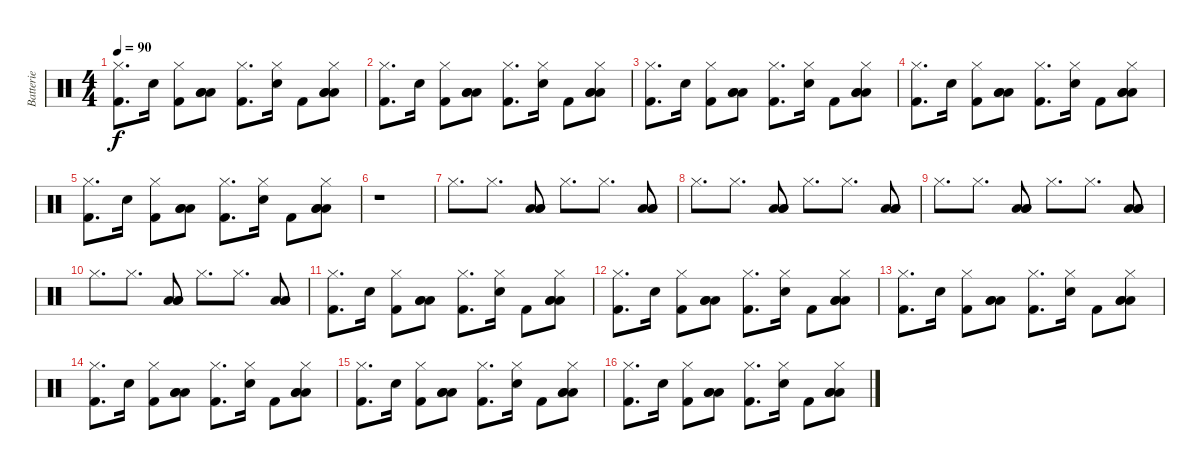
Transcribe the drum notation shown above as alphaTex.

\track ("Batterie" "Batterie") {instrument percussion}
\staff {score}
\articulation defaults
\ts (4 4)
\tempo 90
\clef neutral
\ks c
("Kick (hit) 2" "Hi-Hat (closed)").8{d dy f} "Electric Snare (hit)".16 ("Kick (hit) 2" "Hi-Hat (closed)").8 ("Low Tom (hit)" "Low Tom (hit)" "Low Tom (hit)").8 ("Kick (hit) 2" "Hi-Hat (closed)").8{d} ("Electric Snare (hit)" "Hi-Hat (closed)").16 "Kick (hit) 2".8 ("Low Tom (hit)" "Low Tom (hit)" "Low Tom (hit)" "Hi-Hat (closed)").8 |
("Kick (hit) 2" "Hi-Hat (closed)").8{d} "Electric Snare (hit)".16 ("Kick (hit) 2" "Hi-Hat (closed)").8 ("Low Tom (hit)" "Low Tom (hit)" "Low Tom (hit)").8 ("Kick (hit) 2" "Hi-Hat (closed)").8{d} ("Electric Snare (hit)" "Hi-Hat (closed)").16 "Kick (hit) 2".8 ("Low Tom (hit)" "Low Tom (hit)" "Low Tom (hit)" "Hi-Hat (closed)").8 |
("Kick (hit) 2" "Hi-Hat (closed)").8{d} "Electric Snare (hit)".16 ("Kick (hit) 2" "Hi-Hat (closed)").8 ("Low Tom (hit)" "Low Tom (hit)" "Low Tom (hit)").8 ("Kick (hit) 2" "Hi-Hat (closed)").8{d} ("Electric Snare (hit)" "Hi-Hat (closed)").16 "Kick (hit) 2".8 ("Low Tom (hit)" "Low Tom (hit)" "Low Tom (hit)" "Hi-Hat (closed)").8 |
("Kick (hit) 2" "Hi-Hat (closed)").8{d} "Electric Snare (hit)".16 ("Kick (hit) 2" "Hi-Hat (closed)").8 ("Low Tom (hit)" "Low Tom (hit)" "Low Tom (hit)").8 ("Kick (hit) 2" "Hi-Hat (closed)").8{d} ("Electric Snare (hit)" "Hi-Hat (closed)").16 "Kick (hit) 2".8 ("Low Tom (hit)" "Low Tom (hit)" "Low Tom (hit)" "Hi-Hat (closed)").8 |
("Kick (hit) 2" "Hi-Hat (closed)").8{d} "Electric Snare (hit)".16 ("Kick (hit) 2" "Hi-Hat (closed)").8 ("Low Tom (hit)" "Low Tom (hit)" "Low Tom (hit)").8 ("Kick (hit) 2" "Hi-Hat (closed)").8{d} ("Electric Snare (hit)" "Hi-Hat (closed)").16 "Kick (hit) 2".8 ("Low Tom (hit)" "Low Tom (hit)" "Low Tom (hit)" "Hi-Hat (closed)").8 |
r.1 |
"Hi-Hat (closed)".8{d} "Hi-Hat (closed)".8{d} ("Low Tom (hit)" "Low Tom (hit)" "Low Tom (hit)").8 "Hi-Hat (closed)".8{d} "Hi-Hat (closed)".8{d} ("Low Tom (hit)" "Low Tom (hit)" "Low Tom (hit)").8 |
"Hi-Hat (closed)".8{d} "Hi-Hat (closed)".8{d} ("Low Tom (hit)" "Low Tom (hit)" "Low Tom (hit)").8 "Hi-Hat (closed)".8{d} "Hi-Hat (closed)".8{d} ("Low Tom (hit)" "Low Tom (hit)" "Low Tom (hit)").8 |
"Hi-Hat (closed)".8{d} "Hi-Hat (closed)".8{d} ("Low Tom (hit)" "Low Tom (hit)" "Low Tom (hit)").8 "Hi-Hat (closed)".8{d} "Hi-Hat (closed)".8{d} ("Low Tom (hit)" "Low Tom (hit)" "Low Tom (hit)").8 |
"Hi-Hat (closed)".8{d} "Hi-Hat (closed)".8{d} ("Low Tom (hit)" "Low Tom (hit)" "Low Tom (hit)").8 "Hi-Hat (closed)".8{d} "Hi-Hat (closed)".8{d} ("Low Tom (hit)" "Low Tom (hit)" "Low Tom (hit)").8 |
("Kick (hit) 2" "Hi-Hat (closed)").8{d} "Electric Snare (hit)".16 ("Kick (hit) 2" "Hi-Hat (closed)").8 ("Low Tom (hit)" "Low Tom (hit)" "Low Tom (hit)").8 ("Kick (hit) 2" "Hi-Hat (closed)").8{d} ("Electric Snare (hit)" "Hi-Hat (closed)").16 "Kick (hit) 2".8 ("Low Tom (hit)" "Low Tom (hit)" "Low Tom (hit)" "Hi-Hat (closed)").8 |
("Kick (hit) 2" "Hi-Hat (closed)").8{d} "Electric Snare (hit)".16 ("Kick (hit) 2" "Hi-Hat (closed)").8 ("Low Tom (hit)" "Low Tom (hit)" "Low Tom (hit)").8 ("Kick (hit) 2" "Hi-Hat (closed)").8{d} ("Electric Snare (hit)" "Hi-Hat (closed)").16 "Kick (hit) 2".8 ("Low Tom (hit)" "Low Tom (hit)" "Low Tom (hit)" "Hi-Hat (closed)").8 |
("Kick (hit) 2" "Hi-Hat (closed)").8{d} "Electric Snare (hit)".16 ("Kick (hit) 2" "Hi-Hat (closed)").8 ("Low Tom (hit)" "Low Tom (hit)" "Low Tom (hit)").8 ("Kick (hit) 2" "Hi-Hat (closed)").8{d} ("Electric Snare (hit)" "Hi-Hat (closed)").16 "Kick (hit) 2".8 ("Low Tom (hit)" "Low Tom (hit)" "Low Tom (hit)" "Hi-Hat (closed)").8 |
("Kick (hit) 2" "Hi-Hat (closed)").8{d} "Electric Snare (hit)".16 ("Kick (hit) 2" "Hi-Hat (closed)").8 ("Low Tom (hit)" "Low Tom (hit)" "Low Tom (hit)").8 ("Kick (hit) 2" "Hi-Hat (closed)").8{d} ("Electric Snare (hit)" "Hi-Hat (closed)").16 "Kick (hit) 2".8 ("Low Tom (hit)" "Low Tom (hit)" "Low Tom (hit)" "Hi-Hat (closed)").8 |
("Kick (hit) 2" "Hi-Hat (closed)").8{d} "Electric Snare (hit)".16 ("Kick (hit) 2" "Hi-Hat (closed)").8 ("Low Tom (hit)" "Low Tom (hit)" "Low Tom (hit)").8 ("Kick (hit) 2" "Hi-Hat (closed)").8{d} ("Electric Snare (hit)" "Hi-Hat (closed)").16 "Kick (hit) 2".8 ("Low Tom (hit)" "Low Tom (hit)" "Low Tom (hit)" "Hi-Hat (closed)").8 |
("Kick (hit) 2" "Hi-Hat (closed)").8{d} "Electric Snare (hit)".16 ("Kick (hit) 2" "Hi-Hat (closed)").8 ("Low Tom (hit)" "Low Tom (hit)" "Low Tom (hit)").8 ("Kick (hit) 2" "Hi-Hat (closed)").8{d} ("Electric Snare (hit)" "Hi-Hat (closed)").16 "Kick (hit) 2".8 ("Low Tom (hit)" "Low Tom (hit)" "Low Tom (hit)" "Hi-Hat (closed)").8
